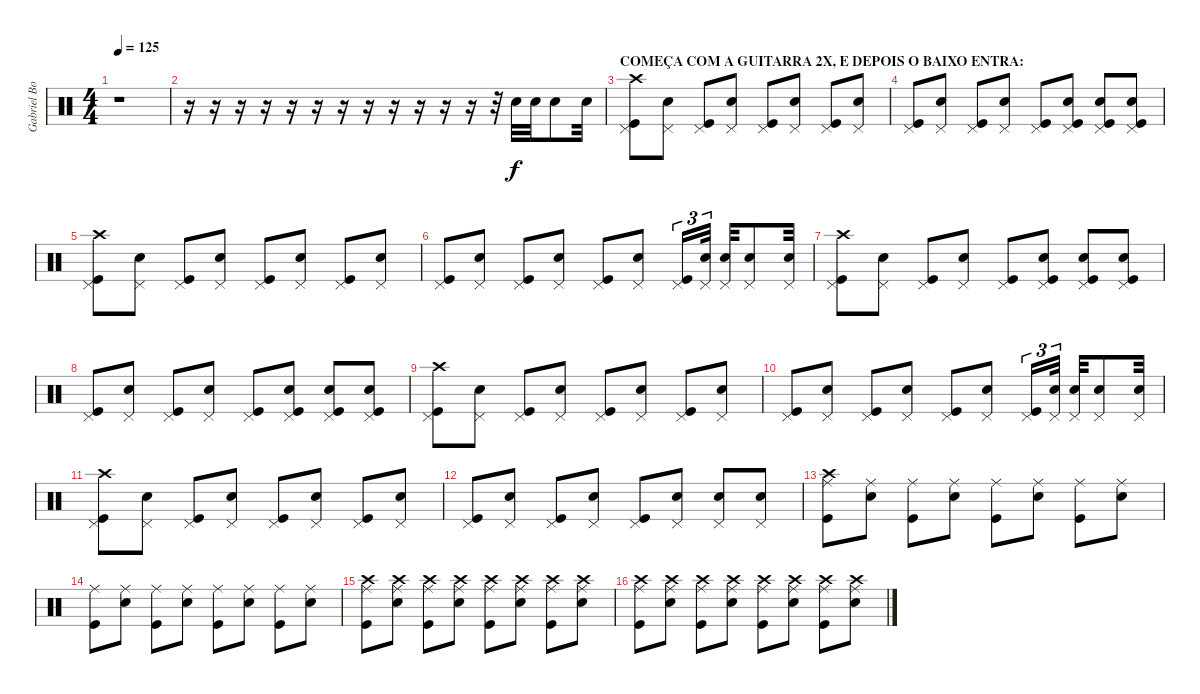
\track ("Gabriel Boizinho" "Gabriel Bo") {instrument percussion}
\staff {score}
\articulation defaults
\ts (4 4)
\tempo 125
\clef neutral
\ks c
r.1{dy f} |
r.16 r.16 r.16 r.16 r.16 r.16 r.16 r.16 r.16 r.16 r.16 r.16 r.32 "Electric Snare (hit)".32 "Electric Snare (hit)".32 "Electric Snare (hit)".8 "Electric Snare (hit)".32 |
\section ("" "COMEÇA COM A GUITARRA 2X, E DEPOIS O BAIXO ENTRA:")
("Crash high (hit)" "Pedal Hi-Hat (hit)" "Kick (hit)").8 ("Pedal Hi-Hat (hit)" "Electric Snare (hit)").8 ("Pedal Hi-Hat (hit)" "Kick (hit)").8 ("Pedal Hi-Hat (hit)" "Electric Snare (hit)").8 ("Pedal Hi-Hat (hit)" "Kick (hit)").8 ("Pedal Hi-Hat (hit)" "Electric Snare (hit)").8 ("Pedal Hi-Hat (hit)" "Kick (hit)").8 ("Pedal Hi-Hat (hit)" "Electric Snare (hit)").8 |
("Pedal Hi-Hat (hit)" "Kick (hit)").8 ("Pedal Hi-Hat (hit)" "Electric Snare (hit)").8 ("Pedal Hi-Hat (hit)" "Kick (hit)").8 ("Pedal Hi-Hat (hit)" "Electric Snare (hit)").8 ("Pedal Hi-Hat (hit)" "Kick (hit)").8 ("Kick (hit)" "Pedal Hi-Hat (hit)" "Electric Snare (hit)").8 ("Kick (hit)" "Pedal Hi-Hat (hit)" "Electric Snare (hit)").8 ("Kick (hit)" "Pedal Hi-Hat (hit)" "Electric Snare (hit)").8 |
("Crash high (hit)" "Pedal Hi-Hat (hit)" "Kick (hit)").8 ("Pedal Hi-Hat (hit)" "Electric Snare (hit)").8 ("Pedal Hi-Hat (hit)" "Kick (hit)").8 ("Pedal Hi-Hat (hit)" "Electric Snare (hit)").8 ("Pedal Hi-Hat (hit)" "Kick (hit)").8 ("Pedal Hi-Hat (hit)" "Electric Snare (hit)").8 ("Pedal Hi-Hat (hit)" "Kick (hit)").8 ("Pedal Hi-Hat (hit)" "Electric Snare (hit)").8 |
("Pedal Hi-Hat (hit)" "Kick (hit)").8 ("Pedal Hi-Hat (hit)" "Electric Snare (hit)").8 ("Pedal Hi-Hat (hit)" "Kick (hit)").8 ("Pedal Hi-Hat (hit)" "Electric Snare (hit)").8 ("Pedal Hi-Hat (hit)" "Kick (hit)").8 ("Pedal Hi-Hat (hit)" "Electric Snare (hit)").8 ("Pedal Hi-Hat (hit)" "Kick (hit)").16{tu (3 2)} ("Pedal Hi-Hat (hit)" "Electric Snare (hit)").32{tu (3 2)} ("Pedal Hi-Hat (hit)" "Electric Snare (hit)").32 ("Pedal Hi-Hat (hit)" "Electric Snare (hit)").8 ("Pedal Hi-Hat (hit)" "Electric Snare (hit)").32 |
("Crash high (hit)" "Pedal Hi-Hat (hit)" "Kick (hit)").8 ("Pedal Hi-Hat (hit)" "Electric Snare (hit)").8 ("Pedal Hi-Hat (hit)" "Kick (hit)").8 ("Pedal Hi-Hat (hit)" "Electric Snare (hit)").8 ("Pedal Hi-Hat (hit)" "Kick (hit)").8 ("Kick (hit)" "Pedal Hi-Hat (hit)" "Electric Snare (hit)").8 ("Kick (hit)" "Pedal Hi-Hat (hit)" "Electric Snare (hit)").8 ("Kick (hit)" "Pedal Hi-Hat (hit)" "Electric Snare (hit)").8 |
("Pedal Hi-Hat (hit)" "Kick (hit)").8 ("Pedal Hi-Hat (hit)" "Electric Snare (hit)").8 ("Pedal Hi-Hat (hit)" "Kick (hit)").8 ("Pedal Hi-Hat (hit)" "Electric Snare (hit)").8 ("Pedal Hi-Hat (hit)" "Kick (hit)").8 ("Kick (hit)" "Pedal Hi-Hat (hit)" "Electric Snare (hit)").8 ("Kick (hit)" "Pedal Hi-Hat (hit)" "Electric Snare (hit)").8 ("Kick (hit)" "Pedal Hi-Hat (hit)" "Electric Snare (hit)").8 |
("Crash high (hit)" "Pedal Hi-Hat (hit)" "Kick (hit)").8 ("Pedal Hi-Hat (hit)" "Electric Snare (hit)").8 ("Pedal Hi-Hat (hit)" "Kick (hit)").8 ("Pedal Hi-Hat (hit)" "Electric Snare (hit)").8 ("Pedal Hi-Hat (hit)" "Kick (hit)").8 ("Pedal Hi-Hat (hit)" "Electric Snare (hit)").8 ("Pedal Hi-Hat (hit)" "Kick (hit)").8 ("Pedal Hi-Hat (hit)" "Electric Snare (hit)").8 |
("Pedal Hi-Hat (hit)" "Kick (hit)").8 ("Pedal Hi-Hat (hit)" "Electric Snare (hit)").8 ("Pedal Hi-Hat (hit)" "Kick (hit)").8 ("Pedal Hi-Hat (hit)" "Electric Snare (hit)").8 ("Pedal Hi-Hat (hit)" "Kick (hit)").8 ("Pedal Hi-Hat (hit)" "Electric Snare (hit)").8 ("Pedal Hi-Hat (hit)" "Kick (hit)").16{tu (3 2)} ("Pedal Hi-Hat (hit)" "Electric Snare (hit)").32{tu (3 2)} ("Pedal Hi-Hat (hit)" "Electric Snare (hit)").32 ("Pedal Hi-Hat (hit)" "Electric Snare (hit)").8 ("Pedal Hi-Hat (hit)" "Electric Snare (hit)").32 |
("Crash high (hit)" "Pedal Hi-Hat (hit)" "Kick (hit)").8 ("Pedal Hi-Hat (hit)" "Electric Snare (hit)").8 ("Pedal Hi-Hat (hit)" "Kick (hit)").8 ("Pedal Hi-Hat (hit)" "Electric Snare (hit)").8 ("Pedal Hi-Hat (hit)" "Kick (hit)").8 ("Pedal Hi-Hat (hit)" "Electric Snare (hit)").8 ("Pedal Hi-Hat (hit)" "Kick (hit)").8 ("Pedal Hi-Hat (hit)" "Electric Snare (hit)").8 |
("Pedal Hi-Hat (hit)" "Kick (hit)").8 ("Pedal Hi-Hat (hit)" "Electric Snare (hit)").8 ("Pedal Hi-Hat (hit)" "Kick (hit)").8 ("Pedal Hi-Hat (hit)" "Electric Snare (hit)").8 ("Pedal Hi-Hat (hit)" "Kick (hit)").8 ("Pedal Hi-Hat (hit)" "Electric Snare (hit)").8 ("Pedal Hi-Hat (hit)" "Electric Snare (hit)").8 ("Pedal Hi-Hat (hit)" "Electric Snare (hit)").8 |
("Crash high (hit)" "Ride (middle)" "Kick (hit)").8 ("Ride (middle)" "Electric Snare (hit)").8 ("Ride (middle)" "Kick (hit)").8 ("Ride (middle)" "Electric Snare (hit)").8 ("Ride (middle)" "Kick (hit)").8 ("Ride (middle)" "Electric Snare (hit)").8 ("Ride (middle)" "Kick (hit)").8 ("Ride (middle)" "Electric Snare (hit)").8 |
("Ride (middle)" "Kick (hit)").8 ("Ride (middle)" "Electric Snare (hit)").8 ("Ride (middle)" "Kick (hit)").8 ("Ride (middle)" "Electric Snare (hit)").8 ("Ride (middle)" "Kick (hit)").8 ("Ride (middle)" "Electric Snare (hit)").8 ("Ride (middle)" "Kick (hit)").8 ("Ride (middle)" "Electric Snare (hit)").8 |
("Crash high (hit)" "Ride (middle)" "Kick (hit)").8 ("Crash high (hit)" "Ride (middle)" "Electric Snare (hit)").8 ("Crash high (hit)" "Ride (middle)" "Kick (hit)").8 ("Crash high (hit)" "Ride (middle)" "Electric Snare (hit)").8 ("Crash high (hit)" "Ride (middle)" "Kick (hit)").8 ("Crash high (hit)" "Ride (middle)" "Electric Snare (hit)").8 ("Crash high (hit)" "Ride (middle)" "Kick (hit)").8 ("Crash high (hit)" "Ride (middle)" "Electric Snare (hit)").8 |
("Crash high (hit)" "Ride (middle)" "Kick (hit)").8 ("Crash high (hit)" "Ride (middle)" "Electric Snare (hit)").8 ("Crash high (hit)" "Ride (middle)" "Kick (hit)").8 ("Crash high (hit)" "Ride (middle)" "Electric Snare (hit)").8 ("Crash high (hit)" "Ride (middle)" "Kick (hit)").8 ("Crash high (hit)" "Ride (middle)" "Electric Snare (hit)").8 ("Crash high (hit)" "Ride (middle)" "Kick (hit)").8 ("Crash high (hit)" "Ride (middle)" "Electric Snare (hit)").8
